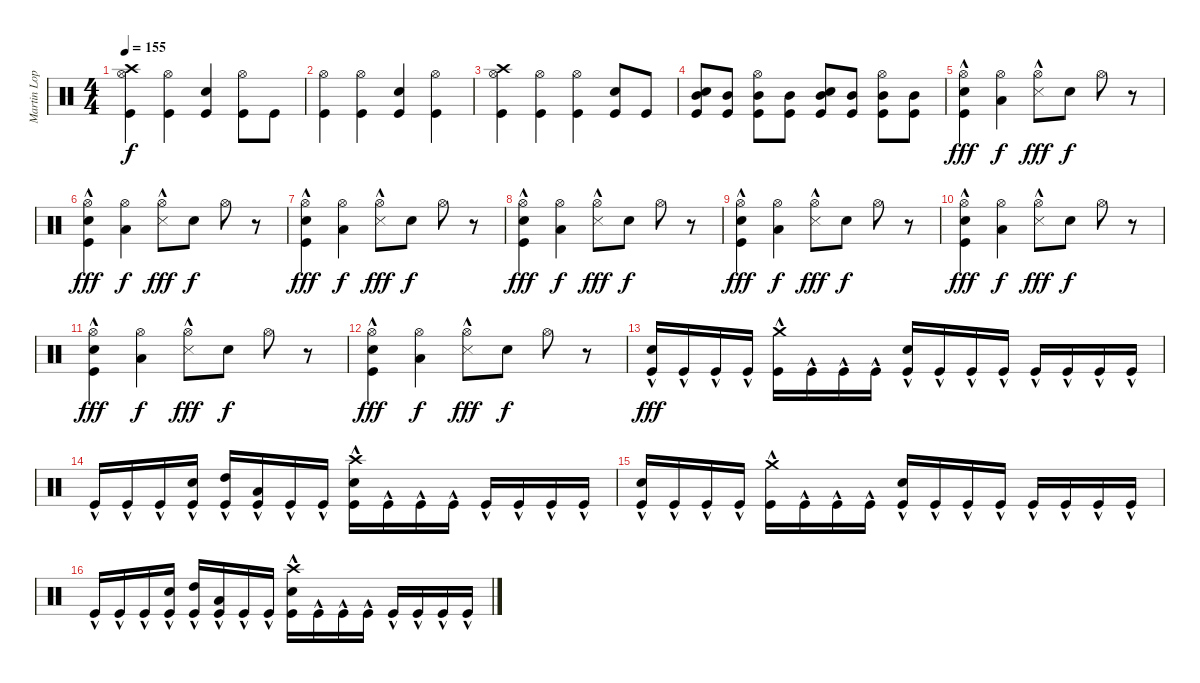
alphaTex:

\track ("Martin Lopez" "Martin Lop") {instrument percussion}
\staff {score}
\articulation defaults
\ts (4 4)
\tempo 155
\clef neutral
\ks c
("Crash high (hit)" "Hi-Hat (open)" "Kick (hit)").4{dy f} ("Hi-Hat (open)" "Kick (hit)").4 ("Electric Snare (hit)" "Kick (hit)").4 ("Hi-Hat (open)" "Kick (hit)").8 "Kick (hit)".8 |
("Hi-Hat (open)" "Kick (hit)").4 ("Hi-Hat (open)" "Kick (hit)").4 ("Electric Snare (hit)" "Kick (hit)").4 ("Hi-Hat (open)" "Kick (hit)").4 |
("Crash high (hit)" "Hi-Hat (open)" "Kick (hit)").4 ("Hi-Hat (open)" "Kick (hit)").4 ("Hi-Hat (open)" "Kick (hit)").4 ("Electric Snare (hit)" "Kick (hit)").8 "Kick (hit)".8 |
("Mid Tom (hit)" "Electric Snare (hit)" "Kick (hit)").8 ("Mid Tom (hit)" "Kick (hit)").8 ("Hi-Hat (open)" "Mid Tom (hit)" "Kick (hit)").8 ("Mid Tom (hit)" "Kick (hit)").8 ("Mid Tom (hit)" "Electric Snare (hit)" "Kick (hit)").8 ("Mid Tom (hit)" "Kick (hit)").8 ("Hi-Hat (open)" "Mid Tom (hit)" "Kick (hit)").8 ("Mid Tom (hit)" "Kick (hit)").8 |
("Hi-Hat (open)" "Electric Snare (hit)" "Kick (hit)"{hac}).4{dy fff} ("Hi-Hat (open)" "Low Tom (hit)").4{dy f} ("Hi-Hat (open)"{hac} "Snare (side stick) 3"{hac}).8{dy fff} "Electric Snare (hit)".8{dy f} "Hi-Hat (open)".8 r.8 |
("Hi-Hat (open)" "Electric Snare (hit)" "Kick (hit)"{hac}).4{dy fff} ("Hi-Hat (open)" "Low Tom (hit)").4{dy f} ("Hi-Hat (open)"{hac} "Snare (side stick) 3"{hac}).8{dy fff} "Electric Snare (hit)".8{dy f} "Hi-Hat (open)".8 r.8 |
("Hi-Hat (open)" "Electric Snare (hit)" "Kick (hit)"{hac}).4{dy fff} ("Hi-Hat (open)" "Low Tom (hit)").4{dy f} ("Hi-Hat (open)"{hac} "Snare (side stick) 3"{hac}).8{dy fff} "Electric Snare (hit)".8{dy f} "Hi-Hat (open)".8 r.8 |
("Hi-Hat (open)" "Electric Snare (hit)" "Kick (hit)"{hac}).4{dy fff} ("Hi-Hat (open)" "Low Tom (hit)").4{dy f} ("Hi-Hat (open)"{hac} "Snare (side stick) 3"{hac}).8{dy fff} "Electric Snare (hit)".8{dy f} "Hi-Hat (open)".8 r.8 |
("Hi-Hat (open)" "Electric Snare (hit)" "Kick (hit)"{hac}).4{dy fff} ("Hi-Hat (open)" "Low Tom (hit)").4{dy f} ("Hi-Hat (open)"{hac} "Snare (side stick) 3"{hac}).8{dy fff} "Electric Snare (hit)".8{dy f} "Hi-Hat (open)".8 r.8 |
("Hi-Hat (open)" "Electric Snare (hit)" "Kick (hit)"{hac}).4{dy fff} ("Hi-Hat (open)" "Low Tom (hit)").4{dy f} ("Hi-Hat (open)"{hac} "Snare (side stick) 3"{hac}).8{dy fff} "Electric Snare (hit)".8{dy f} "Hi-Hat (open)".8 r.8 |
("Hi-Hat (open)" "Electric Snare (hit)" "Kick (hit)"{hac}).4{dy fff} ("Hi-Hat (open)" "Low Tom (hit)").4{dy f} ("Hi-Hat (open)"{hac} "Snare (side stick) 3"{hac}).8{dy fff} "Electric Snare (hit)".8{dy f} "Hi-Hat (open)".8 r.8 |
("Hi-Hat (open)" "Electric Snare (hit)" "Kick (hit)"{hac}).4{dy fff} ("Hi-Hat (open)" "Low Tom (hit)").4{dy f} ("Hi-Hat (open)"{hac} "Snare (side stick) 3"{hac}).8{dy fff} "Electric Snare (hit)".8{dy f} "Hi-Hat (open)".8 r.8 |
("Electric Snare (hit)" "Kick (hit)"{hac}).16{dy fff} "Kick (hit)"{hac}.16 "Kick (hit)"{hac}.16 "Kick (hit)"{hac}.16 ("Crash medium (hit)" "Kick (hit)"{hac}).16 "Kick (hit)"{hac}.16 "Kick (hit)"{hac}.16 "Kick (hit)"{hac}.16 ("Electric Snare (hit)" "Kick (hit)"{hac}).16 "Kick (hit)"{hac}.16 "Kick (hit)"{hac}.16 "Kick (hit)"{hac}.16 "Kick (hit)"{hac}.16 "Kick (hit)"{hac}.16 "Kick (hit)"{hac}.16 "Kick (hit)"{hac}.16 |
"Kick (hit)"{hac}.16 "Kick (hit)"{hac}.16 "Kick (hit)"{hac}.16 ("Electric Snare (hit)" "Kick (hit)"{hac}).16 ("High Tom (hit)" "Kick (hit)"{hac}).16 ("Low Tom (hit)" "Kick (hit)"{hac}).16 "Kick (hit)"{hac}.16 "Kick (hit)"{hac}.16 ("Crash high (hit)" "Electric Snare (hit)" "Kick (hit)"{hac}).16 "Kick (hit)"{hac}.16 "Kick (hit)"{hac}.16 "Kick (hit)"{hac}.16 "Kick (hit)"{hac}.16 "Kick (hit)"{hac}.16 "Kick (hit)"{hac}.16 "Kick (hit)"{hac}.16 |
("Electric Snare (hit)" "Kick (hit)"{hac}).16 "Kick (hit)"{hac}.16 "Kick (hit)"{hac}.16 "Kick (hit)"{hac}.16 ("Crash medium (hit)" "Kick (hit)"{hac}).16 "Kick (hit)"{hac}.16 "Kick (hit)"{hac}.16 "Kick (hit)"{hac}.16 ("Electric Snare (hit)" "Kick (hit)"{hac}).16 "Kick (hit)"{hac}.16 "Kick (hit)"{hac}.16 "Kick (hit)"{hac}.16 "Kick (hit)"{hac}.16 "Kick (hit)"{hac}.16 "Kick (hit)"{hac}.16 "Kick (hit)"{hac}.16 |
"Kick (hit)"{hac}.16 "Kick (hit)"{hac}.16 "Kick (hit)"{hac}.16 ("Electric Snare (hit)" "Kick (hit)"{hac}).16 ("High Tom (hit)" "Kick (hit)"{hac}).16 ("Low Tom (hit)" "Kick (hit)"{hac}).16 "Kick (hit)"{hac}.16 "Kick (hit)"{hac}.16 ("Crash high (hit)" "Electric Snare (hit)" "Kick (hit)"{hac}).16 "Kick (hit)"{hac}.16 "Kick (hit)"{hac}.16 "Kick (hit)"{hac}.16 "Kick (hit)"{hac}.16 "Kick (hit)"{hac}.16 "Kick (hit)"{hac}.16 "Kick (hit)"{hac}.16
